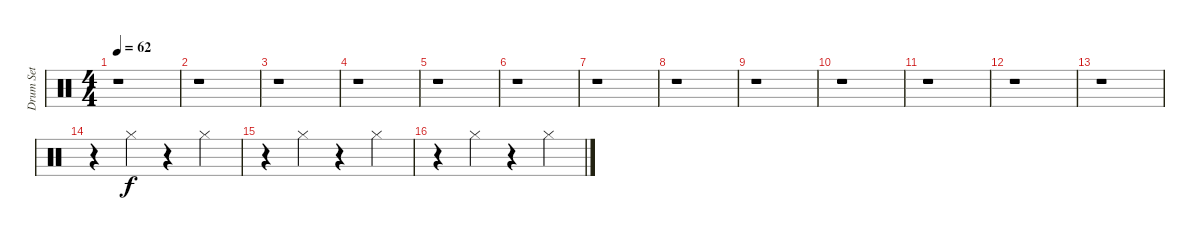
\track ("Drum Set" "Drum Set") {instrument percussion}
\staff {score}
\articulation defaults
\ts (4 4)
\tempo 62
\clef neutral
\ks c
r.1{dy f} |
r.1 |
r.1 |
r.1 |
r.1 |
r.1 |
r.1 |
r.1 |
r.1 |
r.1 |
r.1 |
r.1 |
r.1 |
r.4 "Hi-Hat (closed)".4 r.4 "Hi-Hat (closed)".4 |
r.4 "Hi-Hat (closed)".4 r.4 "Hi-Hat (closed)".4 |
r.4 "Hi-Hat (closed)".4 r.4 "Hi-Hat (closed)".4
